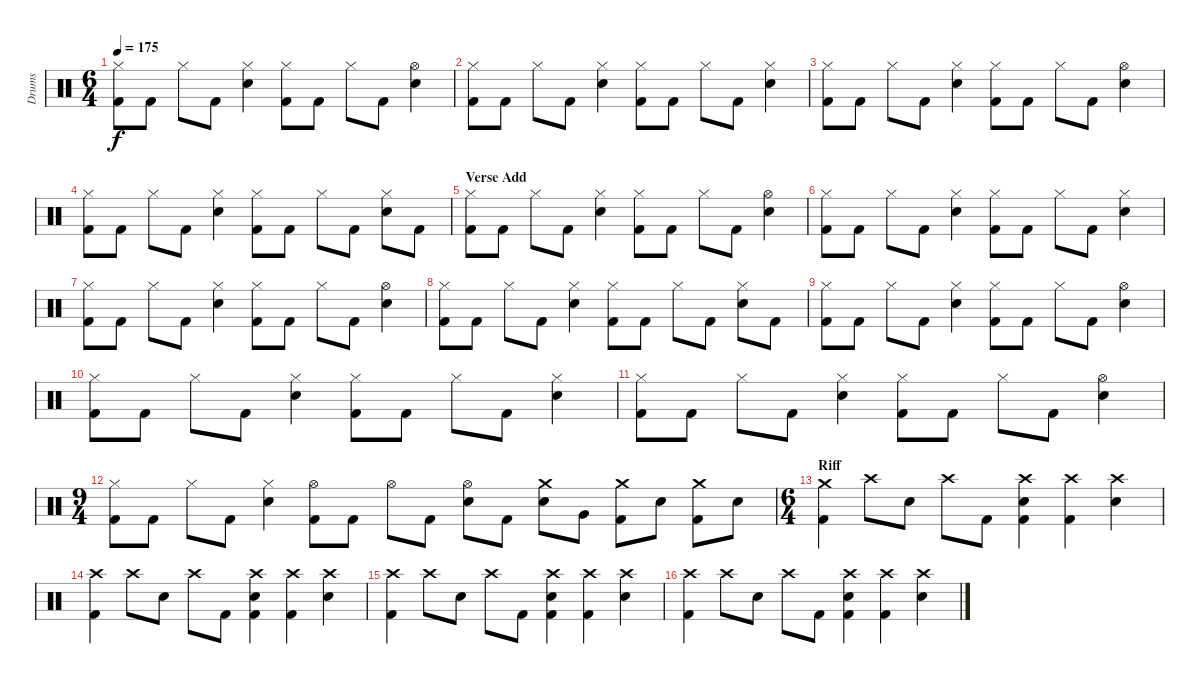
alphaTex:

\track ("Drums" "Drums") {instrument percussion}
\staff {score}
\articulation defaults
\ts (6 4)
\tempo 175
\clef neutral
\ks c
("Hi-Hat (closed)" "Kick (hit) 2").8{dy f} "Kick (hit) 2".8 "Hi-Hat (closed)".8 "Kick (hit) 2".8 ("Hi-Hat (closed)" "Electric Snare (hit)").4 ("Hi-Hat (closed)" "Kick (hit) 2").8 "Kick (hit) 2".8 "Hi-Hat (closed)".8 "Kick (hit) 2".8 ("Hi-Hat (open)" "Electric Snare (hit)").4 |
("Hi-Hat (closed)" "Kick (hit) 2").8 "Kick (hit) 2".8 "Hi-Hat (closed)".8 "Kick (hit) 2".8 ("Hi-Hat (closed)" "Electric Snare (hit)").4 ("Hi-Hat (closed)" "Kick (hit) 2").8 "Kick (hit) 2".8 "Hi-Hat (closed)".8 "Kick (hit) 2".8 ("Hi-Hat (closed)" "Electric Snare (hit)").4 |
("Hi-Hat (closed)" "Kick (hit) 2").8 "Kick (hit) 2".8 "Hi-Hat (closed)".8 "Kick (hit) 2".8 ("Hi-Hat (closed)" "Electric Snare (hit)").4 ("Hi-Hat (closed)" "Kick (hit) 2").8 "Kick (hit) 2".8 "Hi-Hat (closed)".8 "Kick (hit) 2".8 ("Hi-Hat (open)" "Electric Snare (hit)").4 |
("Hi-Hat (closed)" "Kick (hit) 2").8 "Kick (hit) 2".8 "Hi-Hat (closed)".8 "Kick (hit) 2".8 ("Hi-Hat (closed)" "Electric Snare (hit)").4 ("Hi-Hat (closed)" "Kick (hit) 2").8 "Kick (hit) 2".8 "Hi-Hat (closed)".8 "Kick (hit) 2".8 ("Hi-Hat (closed)" "Electric Snare (hit)").8 "Kick (hit) 2".8 |
\section ("" "Verse Add")
("Hi-Hat (closed)" "Kick (hit) 2").8 "Kick (hit) 2".8 "Hi-Hat (closed)".8 "Kick (hit) 2".8 ("Hi-Hat (closed)" "Electric Snare (hit)").4 ("Hi-Hat (closed)" "Kick (hit) 2").8 "Kick (hit) 2".8 "Hi-Hat (closed)".8 "Kick (hit) 2".8 ("Hi-Hat (open)" "Electric Snare (hit)").4 |
("Hi-Hat (closed)" "Kick (hit) 2").8 "Kick (hit) 2".8 "Hi-Hat (closed)".8 "Kick (hit) 2".8 ("Hi-Hat (closed)" "Electric Snare (hit)").4 ("Hi-Hat (closed)" "Kick (hit) 2").8 "Kick (hit) 2".8 "Hi-Hat (closed)".8 "Kick (hit) 2".8 ("Hi-Hat (closed)" "Electric Snare (hit)").4 |
("Hi-Hat (closed)" "Kick (hit) 2").8 "Kick (hit) 2".8 "Hi-Hat (closed)".8 "Kick (hit) 2".8 ("Hi-Hat (closed)" "Electric Snare (hit)").4 ("Hi-Hat (closed)" "Kick (hit) 2").8 "Kick (hit) 2".8 "Hi-Hat (closed)".8 "Kick (hit) 2".8 ("Hi-Hat (open)" "Electric Snare (hit)").4 |
("Hi-Hat (closed)" "Kick (hit) 2").8 "Kick (hit) 2".8 "Hi-Hat (closed)".8 "Kick (hit) 2".8 ("Hi-Hat (closed)" "Electric Snare (hit)").4 ("Hi-Hat (closed)" "Kick (hit) 2").8 "Kick (hit) 2".8 "Hi-Hat (closed)".8 "Kick (hit) 2".8 ("Hi-Hat (closed)" "Electric Snare (hit)").8 "Kick (hit) 2".8 |
("Hi-Hat (closed)" "Kick (hit) 2").8 "Kick (hit) 2".8 "Hi-Hat (closed)".8 "Kick (hit) 2".8 ("Hi-Hat (closed)" "Electric Snare (hit)").4 ("Hi-Hat (closed)" "Kick (hit) 2").8 "Kick (hit) 2".8 "Hi-Hat (closed)".8 "Kick (hit) 2".8 ("Hi-Hat (open)" "Electric Snare (hit)").4 |
("Hi-Hat (closed)" "Kick (hit) 2").8 "Kick (hit) 2".8 "Hi-Hat (closed)".8 "Kick (hit) 2".8 ("Hi-Hat (closed)" "Electric Snare (hit)").4 ("Hi-Hat (closed)" "Kick (hit) 2").8 "Kick (hit) 2".8 "Hi-Hat (closed)".8 "Kick (hit) 2".8 ("Hi-Hat (closed)" "Electric Snare (hit)").4 |
("Hi-Hat (closed)" "Kick (hit) 2").8 "Kick (hit) 2".8 "Hi-Hat (closed)".8 "Kick (hit) 2".8 ("Hi-Hat (closed)" "Electric Snare (hit)").4 ("Hi-Hat (closed)" "Kick (hit) 2").8 "Kick (hit) 2".8 "Hi-Hat (closed)".8 "Kick (hit) 2".8 ("Hi-Hat (open)" "Electric Snare (hit)").4 |
\ts (9 4)
("Hi-Hat (closed)" "Kick (hit) 2").8 "Kick (hit) 2".8 "Hi-Hat (closed)".8 "Kick (hit) 2".8 ("Hi-Hat (closed)" "Electric Snare (hit)").4 ("Hi-Hat (open)" "Kick (hit) 2").8 "Kick (hit) 2".8 "Hi-Hat (open)".8 "Kick (hit) 2".8 ("Hi-Hat (open)" "Electric Snare (hit)").8 "Kick (hit) 2".8 ("Crash medium (hit)" "Electric Snare (hit)").8 "Very Low Tom (hit)".8 ("Crash medium (hit)" "Kick (hit) 2").8 "Electric Snare (hit)".8 ("Crash medium (hit)" "Kick (hit) 2").8 "Electric Snare (hit)".8 |
\ts (6 4)
\section ("" "Riff")
("Crash medium (hit)" "Kick (hit) 2").4 "Crash high (hit)".8 "Electric Snare (hit)".8 "Crash high (hit)".8 "Kick (hit) 2".8 ("Crash high (hit)" "Electric Snare (hit)" "Kick (hit) 2").4 ("Crash high (hit)" "Kick (hit) 2").4 ("Crash high (hit)" "Electric Snare (hit)").4 |
("Crash high (hit)" "Kick (hit) 2").4 "Crash high (hit)".8 "Electric Snare (hit)".8 "Crash high (hit)".8 "Kick (hit) 2".8 ("Crash high (hit)" "Electric Snare (hit)" "Kick (hit) 2").4 ("Crash high (hit)" "Kick (hit) 2").4 ("Crash high (hit)" "Electric Snare (hit)").4 |
("Crash high (hit)" "Kick (hit) 2").4 "Crash high (hit)".8 "Electric Snare (hit)".8 "Crash high (hit)".8 "Kick (hit) 2".8 ("Crash high (hit)" "Electric Snare (hit)" "Kick (hit) 2").4 ("Crash high (hit)" "Kick (hit) 2").4 ("Crash high (hit)" "Electric Snare (hit)").4 |
("Crash high (hit)" "Kick (hit) 2").4 "Crash high (hit)".8 "Electric Snare (hit)".8 "Crash high (hit)".8 "Kick (hit) 2".8 ("Crash high (hit)" "Electric Snare (hit)" "Kick (hit) 2").4 ("Crash high (hit)" "Kick (hit) 2").4 ("Crash high (hit)" "Electric Snare (hit)").4
